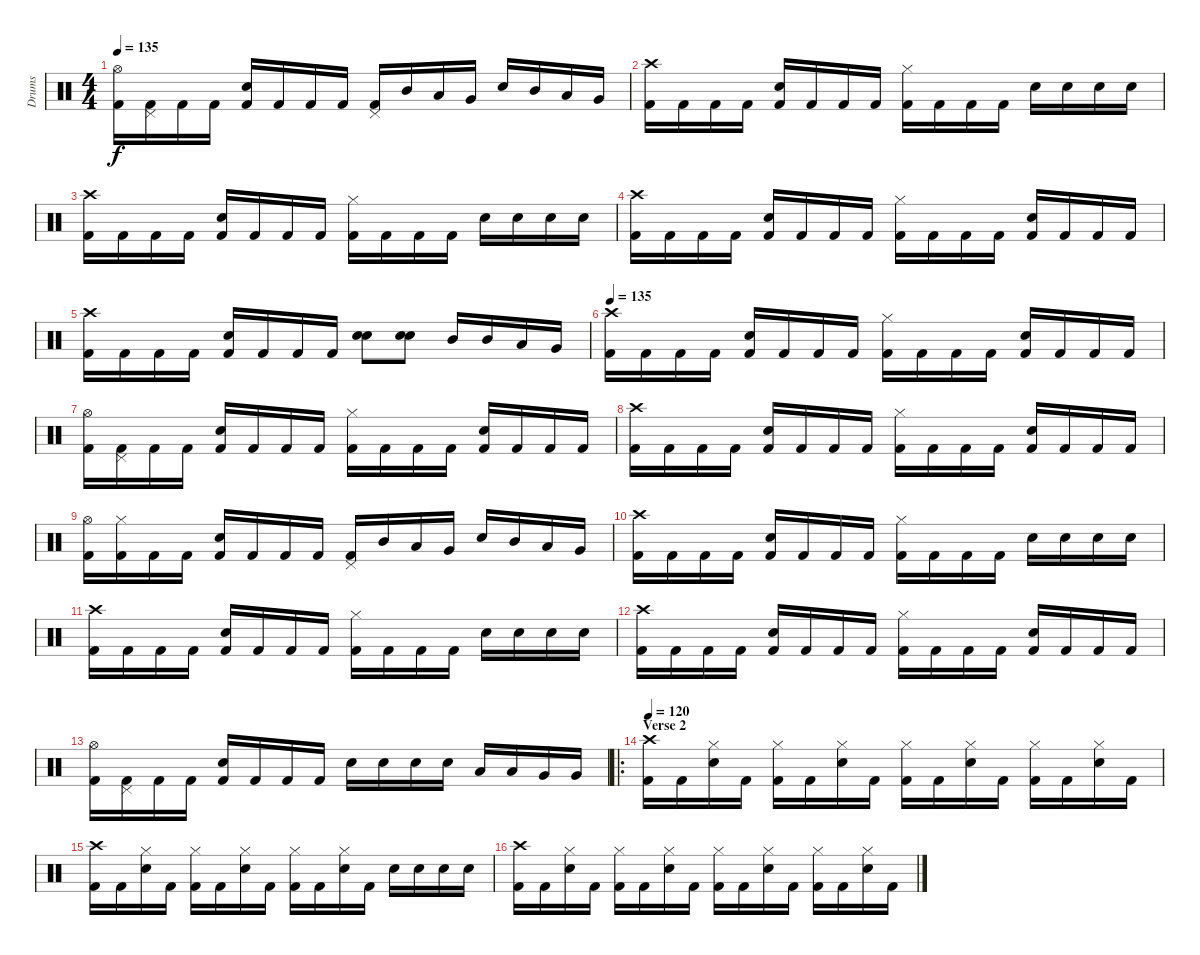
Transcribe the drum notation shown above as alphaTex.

\track ("Drums" "Drums") {instrument percussion}
\staff {score}
\articulation defaults
\ts (4 4)
\tempo 135
\clef neutral
\ks c
("Kick (hit) 2" "Hi-Hat (open)").16{dy f} ("Kick (hit) 2" "Pedal Hi-Hat (hit)").16 "Kick (hit) 2".16 "Kick (hit) 2".16 ("Kick (hit) 2" "Electric Snare (hit)").16 "Kick (hit) 2".16 "Kick (hit) 2".16 "Kick (hit) 2".16 ("Kick (hit) 2" "Pedal Hi-Hat (hit)").16 "Mid Tom (hit)".16 "Low Tom (hit)".16 "Very Low Tom (hit)".16 "Electric Snare (hit)".16 "Mid Tom (hit)".16 "Low Tom (hit)".16 "Very Low Tom (hit)".16 |
("Kick (hit) 2" "Crash high (hit)").16 "Kick (hit) 2".16 "Kick (hit) 2".16 "Kick (hit) 2".16 ("Kick (hit) 2" "Electric Snare (hit)").16 "Kick (hit) 2".16 "Kick (hit) 2".16 "Kick (hit) 2".16 ("Kick (hit) 2" "Hi-Hat (closed)").16 "Kick (hit) 2".16 "Kick (hit) 2".16 "Kick (hit) 2".16 "Electric Snare (hit)".16 "Electric Snare (hit)".16 "Electric Snare (hit)".16 "Electric Snare (hit)".16 |
("Kick (hit) 2" "Crash high (hit)").16 "Kick (hit) 2".16 "Kick (hit) 2".16 "Kick (hit) 2".16 ("Kick (hit) 2" "Electric Snare (hit)").16 "Kick (hit) 2".16 "Kick (hit) 2".16 "Kick (hit) 2".16 ("Kick (hit) 2" "Hi-Hat (closed)").16 "Kick (hit) 2".16 "Kick (hit) 2".16 "Kick (hit) 2".16 "Electric Snare (hit)".16 "Electric Snare (hit)".16 "Electric Snare (hit)".16 "Electric Snare (hit)".16 |
("Kick (hit) 2" "Crash high (hit)").16 "Kick (hit) 2".16 "Kick (hit) 2".16 "Kick (hit) 2".16 ("Kick (hit) 2" "Electric Snare (hit)").16 "Kick (hit) 2".16 "Kick (hit) 2".16 "Kick (hit) 2".16 ("Kick (hit) 2" "Hi-Hat (closed)").16 "Kick (hit) 2".16 "Kick (hit) 2".16 "Kick (hit) 2".16 ("Kick (hit) 2" "Electric Snare (hit)").16 "Kick (hit) 2".16 "Kick (hit) 2".16 "Kick (hit) 2".16 |
("Kick (hit) 2" "Crash high (hit)").16 "Kick (hit) 2".16 "Kick (hit) 2".16 "Kick (hit) 2".16 ("Kick (hit) 2" "Electric Snare (hit)").16 "Kick (hit) 2".16 "Kick (hit) 2".16 "Kick (hit) 2".16 ("Electric Snare (hit)" "Electric Snare (hit)").8{bd 60} ("Electric Snare (hit)" "Electric Snare (hit)").8{bd 60} "Mid Tom (hit)".16 "Mid Tom (hit)".16 "Low Tom (hit)".16 "Very Low Tom (hit)".16 |
\tempo 135
("Kick (hit) 2" "Crash high (hit)").16 "Kick (hit) 2".16 "Kick (hit) 2".16 "Kick (hit) 2".16 ("Kick (hit) 2" "Electric Snare (hit)").16 "Kick (hit) 2".16 "Kick (hit) 2".16 "Kick (hit) 2".16 ("Kick (hit) 2" "Hi-Hat (closed)").16 "Kick (hit) 2".16 "Kick (hit) 2".16 "Kick (hit) 2".16 ("Kick (hit) 2" "Electric Snare (hit)").16 "Kick (hit) 2".16 "Kick (hit) 2".16 "Kick (hit) 2".16 |
("Kick (hit) 2" "Hi-Hat (open)").16 ("Kick (hit) 2" "Pedal Hi-Hat (hit)").16 "Kick (hit) 2".16 "Kick (hit) 2".16 ("Kick (hit) 2" "Electric Snare (hit)").16 "Kick (hit) 2".16 "Kick (hit) 2".16 "Kick (hit) 2".16 ("Kick (hit) 2" "Hi-Hat (closed)").16 "Kick (hit) 2".16 "Kick (hit) 2".16 "Kick (hit) 2".16 ("Kick (hit) 2" "Electric Snare (hit)").16 "Kick (hit) 2".16 "Kick (hit) 2".16 "Kick (hit) 2".16 |
("Kick (hit) 2" "Crash high (hit)").16 "Kick (hit) 2".16 "Kick (hit) 2".16 "Kick (hit) 2".16 ("Kick (hit) 2" "Electric Snare (hit)").16 "Kick (hit) 2".16 "Kick (hit) 2".16 "Kick (hit) 2".16 ("Kick (hit) 2" "Hi-Hat (closed)").16 "Kick (hit) 2".16 "Kick (hit) 2".16 "Kick (hit) 2".16 ("Kick (hit) 2" "Electric Snare (hit)").16 "Kick (hit) 2".16 "Kick (hit) 2".16 "Kick (hit) 2".16 |
("Kick (hit) 2" "Hi-Hat (open)").16 ("Kick (hit) 2" "Hi-Hat (closed)").16 "Kick (hit) 2".16 "Kick (hit) 2".16 ("Kick (hit) 2" "Electric Snare (hit)").16 "Kick (hit) 2".16 "Kick (hit) 2".16 "Kick (hit) 2".16 ("Kick (hit) 2" "Pedal Hi-Hat (hit)").16 "Mid Tom (hit)".16 "Low Tom (hit)".16 "Very Low Tom (hit)".16 "Electric Snare (hit)".16 "Mid Tom (hit)".16 "Low Tom (hit)".16 "Very Low Tom (hit)".16 |
("Kick (hit) 2" "Crash high (hit)").16 "Kick (hit) 2".16 "Kick (hit) 2".16 "Kick (hit) 2".16 ("Kick (hit) 2" "Electric Snare (hit)").16 "Kick (hit) 2".16 "Kick (hit) 2".16 "Kick (hit) 2".16 ("Kick (hit) 2" "Hi-Hat (closed)").16 "Kick (hit) 2".16 "Kick (hit) 2".16 "Kick (hit) 2".16 "Electric Snare (hit)".16 "Electric Snare (hit)".16 "Electric Snare (hit)".16 "Electric Snare (hit)".16 |
("Kick (hit) 2" "Crash high (hit)").16 "Kick (hit) 2".16 "Kick (hit) 2".16 "Kick (hit) 2".16 ("Kick (hit) 2" "Electric Snare (hit)").16 "Kick (hit) 2".16 "Kick (hit) 2".16 "Kick (hit) 2".16 ("Kick (hit) 2" "Hi-Hat (closed)").16 "Kick (hit) 2".16 "Kick (hit) 2".16 "Kick (hit) 2".16 "Electric Snare (hit)".16 "Electric Snare (hit)".16 "Electric Snare (hit)".16 "Electric Snare (hit)".16 |
("Kick (hit) 2" "Crash high (hit)").16 "Kick (hit) 2".16 "Kick (hit) 2".16 "Kick (hit) 2".16 ("Kick (hit) 2" "Electric Snare (hit)").16 "Kick (hit) 2".16 "Kick (hit) 2".16 "Kick (hit) 2".16 ("Kick (hit) 2" "Hi-Hat (closed)").16 "Kick (hit) 2".16 "Kick (hit) 2".16 "Kick (hit) 2".16 ("Kick (hit) 2" "Electric Snare (hit)").16 "Kick (hit) 2".16 "Kick (hit) 2".16 "Kick (hit) 2".16 |
("Kick (hit) 2" "Hi-Hat (open)").16 ("Kick (hit) 2" "Pedal Hi-Hat (hit)").16 "Kick (hit) 2".16 "Kick (hit) 2".16 ("Kick (hit) 2" "Electric Snare (hit)").16 "Kick (hit) 2".16 "Kick (hit) 2".16 "Kick (hit) 2".16 "Electric Snare (hit)".16 "Electric Snare (hit)".16 "Electric Snare (hit)".16 "Electric Snare (hit)".16 "Low Tom (hit)".16 "Low Tom (hit)".16 "Very Low Tom (hit)".16 "Very Low Tom (hit)".16 |
\ro
\section ("" "Verse 2")
\tempo 120
("Kick (hit) 2" "Crash high (hit)").16 "Kick (hit) 2".16 ("Electric Snare (hit)" "Hi-Hat (closed)").16 "Kick (hit) 2".16 ("Kick (hit) 2" "Hi-Hat (closed)").16 "Kick (hit) 2".16 ("Electric Snare (hit)" "Hi-Hat (closed)").16 "Kick (hit) 2".16 ("Kick (hit) 2" "Hi-Hat (closed)").16 "Kick (hit) 2".16 ("Electric Snare (hit)" "Hi-Hat (closed)").16 "Kick (hit) 2".16 ("Kick (hit) 2" "Hi-Hat (closed)").16 "Kick (hit) 2".16 ("Electric Snare (hit)" "Hi-Hat (closed)").16 "Kick (hit) 2".16 |
("Kick (hit) 2" "Crash high (hit)").16 "Kick (hit) 2".16 ("Electric Snare (hit)" "Hi-Hat (closed)").16 "Kick (hit) 2".16 ("Kick (hit) 2" "Hi-Hat (closed)").16 "Kick (hit) 2".16 ("Electric Snare (hit)" "Hi-Hat (closed)").16 "Kick (hit) 2".16 ("Kick (hit) 2" "Hi-Hat (closed)").16 "Kick (hit) 2".16 ("Electric Snare (hit)" "Hi-Hat (closed)").16 "Kick (hit) 2".16 "Electric Snare (hit)".16 "Electric Snare (hit)".16 "Electric Snare (hit)".16 "Electric Snare (hit)".16 |
("Kick (hit) 2" "Crash high (hit)").16 "Kick (hit) 2".16 ("Electric Snare (hit)" "Hi-Hat (closed)").16 "Kick (hit) 2".16 ("Kick (hit) 2" "Hi-Hat (closed)").16 "Kick (hit) 2".16 ("Electric Snare (hit)" "Hi-Hat (closed)").16 "Kick (hit) 2".16 ("Kick (hit) 2" "Hi-Hat (closed)").16 "Kick (hit) 2".16 ("Electric Snare (hit)" "Hi-Hat (closed)").16 "Kick (hit) 2".16 ("Kick (hit) 2" "Hi-Hat (closed)").16 "Kick (hit) 2".16 ("Electric Snare (hit)" "Hi-Hat (closed)").16 "Kick (hit) 2".16
